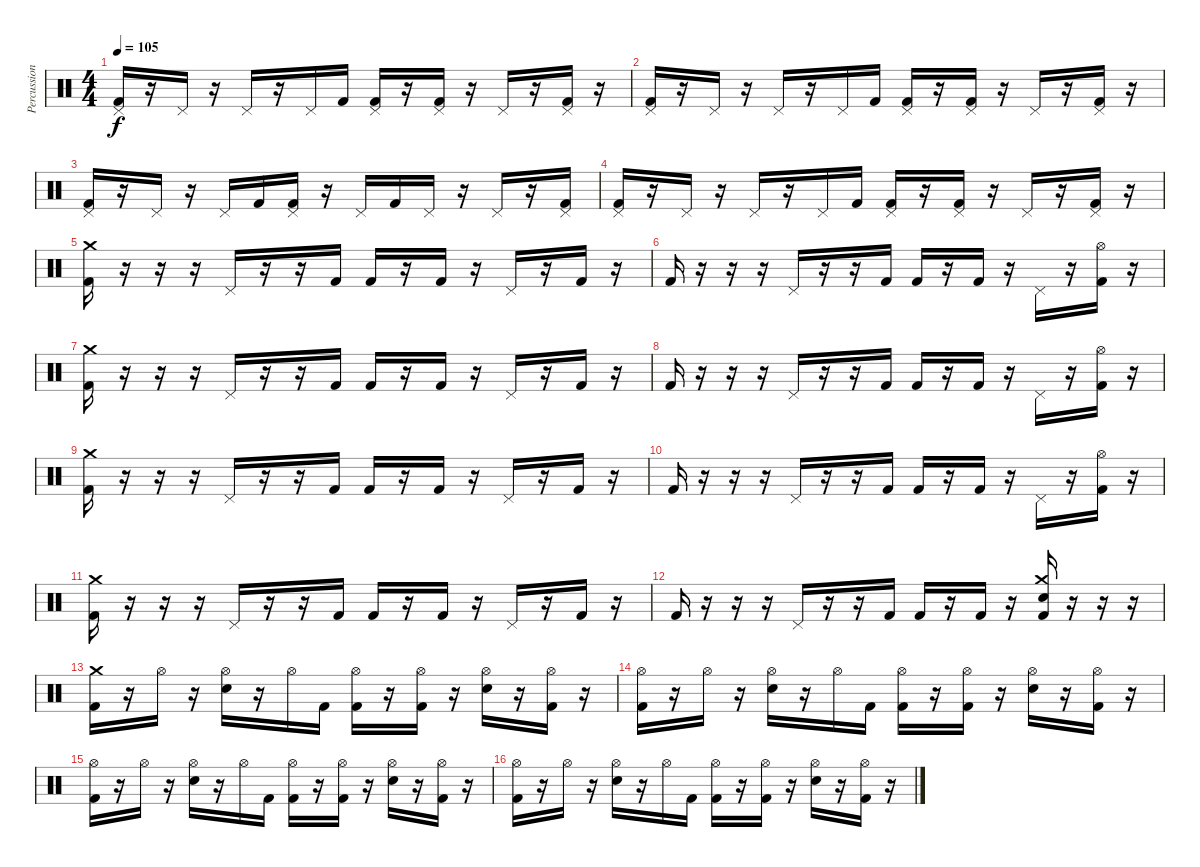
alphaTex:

\track ("Percussions" "Percussion") {instrument percussion}
\staff {score}
\articulation defaults
\ts (4 4)
\tempo 105
\clef neutral
\ks c
("Pedal Hi-Hat (hit)" "Kick (hit) 2").16{dy f volume 9} r.16 "Pedal Hi-Hat (hit)".16 r.16 "Pedal Hi-Hat (hit)".16 r.16 "Pedal Hi-Hat (hit)".16 "Kick (hit) 2".16 ("Pedal Hi-Hat (hit)" "Kick (hit) 2").16 r.16 ("Pedal Hi-Hat (hit)" "Kick (hit) 2").16 r.16 "Pedal Hi-Hat (hit)".16 r.16 ("Pedal Hi-Hat (hit)" "Kick (hit) 2").16 r.16 |
("Pedal Hi-Hat (hit)" "Kick (hit) 2").16 r.16 "Pedal Hi-Hat (hit)".16 r.16 "Pedal Hi-Hat (hit)".16 r.16 "Pedal Hi-Hat (hit)".16 "Kick (hit) 2".16 ("Pedal Hi-Hat (hit)" "Kick (hit) 2").16 r.16 ("Pedal Hi-Hat (hit)" "Kick (hit) 2").16 r.16 "Pedal Hi-Hat (hit)".16 r.16 ("Pedal Hi-Hat (hit)" "Kick (hit) 2").16 r.16 |
("Pedal Hi-Hat (hit)" "Kick (hit) 2").16 r.16 "Pedal Hi-Hat (hit)".16 r.16 "Pedal Hi-Hat (hit)".16 "Kick (hit) 2".16 ("Pedal Hi-Hat (hit)" "Kick (hit) 2").16 r.16 "Pedal Hi-Hat (hit)".16 "Kick (hit) 2".16 "Pedal Hi-Hat (hit)".16 r.16 "Pedal Hi-Hat (hit)".16 r.16 ("Pedal Hi-Hat (hit)" "Kick (hit) 2").16 |
("Pedal Hi-Hat (hit)" "Kick (hit) 2").16 r.16 "Pedal Hi-Hat (hit)".16 r.16 "Pedal Hi-Hat (hit)".16 r.16 "Pedal Hi-Hat (hit)".16 "Kick (hit) 2".16 ("Pedal Hi-Hat (hit)" "Kick (hit) 2").16 r.16 ("Pedal Hi-Hat (hit)" "Kick (hit) 2").16 r.16 "Pedal Hi-Hat (hit)".16 r.16 ("Pedal Hi-Hat (hit)" "Kick (hit) 2").16 r.16 |
("Crash medium (hit)" "Kick (hit) 2").16 r.16 r.16 r.16 "Pedal Hi-Hat (hit)".16 r.16 r.16 "Kick (hit) 2".16 "Kick (hit) 2".16 r.16 "Kick (hit) 2".16 r.16 "Pedal Hi-Hat (hit)".16 r.16 "Kick (hit) 2".16 r.16 |
"Kick (hit) 2".16 r.16 r.16 r.16 "Pedal Hi-Hat (hit)".16 r.16 r.16 "Kick (hit) 2".16 "Kick (hit) 2".16 r.16 "Kick (hit) 2".16 r.16 "Pedal Hi-Hat (hit)".16 r.16 ("Hi-Hat (open)" "Kick (hit) 2").16 r.16 |
("Crash medium (hit)" "Kick (hit) 2").16 r.16 r.16 r.16 "Pedal Hi-Hat (hit)".16 r.16 r.16 "Kick (hit) 2".16 "Kick (hit) 2".16 r.16 "Kick (hit) 2".16 r.16 "Pedal Hi-Hat (hit)".16 r.16 "Kick (hit) 2".16 r.16 |
"Kick (hit) 2".16 r.16 r.16 r.16 "Pedal Hi-Hat (hit)".16 r.16 r.16 "Kick (hit) 2".16 "Kick (hit) 2".16 r.16 "Kick (hit) 2".16 r.16 "Pedal Hi-Hat (hit)".16 r.16 ("Hi-Hat (open)" "Kick (hit) 2").16 r.16 |
("Crash medium (hit)" "Kick (hit) 2").16 r.16 r.16 r.16 "Pedal Hi-Hat (hit)".16 r.16 r.16 "Kick (hit) 2".16 "Kick (hit) 2".16 r.16 "Kick (hit) 2".16 r.16 "Pedal Hi-Hat (hit)".16 r.16 "Kick (hit) 2".16 r.16 |
"Kick (hit) 2".16 r.16 r.16 r.16 "Pedal Hi-Hat (hit)".16 r.16 r.16 "Kick (hit) 2".16 "Kick (hit) 2".16 r.16 "Kick (hit) 2".16 r.16 "Pedal Hi-Hat (hit)".16 r.16 ("Hi-Hat (open)" "Kick (hit) 2").16 r.16 |
("Crash medium (hit)" "Kick (hit) 2").16 r.16 r.16 r.16 "Pedal Hi-Hat (hit)".16 r.16 r.16 "Kick (hit) 2".16 "Kick (hit) 2".16 r.16 "Kick (hit) 2".16 r.16 "Pedal Hi-Hat (hit)".16 r.16 "Kick (hit) 2".16 r.16 |
"Kick (hit) 2".16 r.16 r.16 r.16 "Pedal Hi-Hat (hit)".16 r.16 r.16 "Kick (hit) 2".16 "Kick (hit) 2".16 r.16 "Kick (hit) 2".16 r.16 ("Crash medium (hit)" "Snare (hit) 2" "Kick (hit) 2").16 r.16 r.16 r.16 |
("Crash medium (hit)" "Kick (hit) 2").16{volume 16} r.16 "Hi-Hat (open)".16 r.16 ("Hi-Hat (open)" "Snare (hit) 2").16 r.16 "Hi-Hat (open)".16 "Kick (hit) 2".16 ("Hi-Hat (open)" "Kick (hit) 2").16 r.16 ("Hi-Hat (open)" "Kick (hit) 2").16 r.16 ("Hi-Hat (open)" "Snare (hit) 2").16 r.16 ("Hi-Hat (open)" "Kick (hit) 2").16 r.16 |
("Hi-Hat (open)" "Kick (hit) 2").16 r.16 "Hi-Hat (open)".16 r.16 ("Hi-Hat (open)" "Snare (hit) 2").16 r.16 "Hi-Hat (open)".16 "Kick (hit) 2".16 ("Hi-Hat (open)" "Kick (hit) 2").16 r.16 ("Hi-Hat (open)" "Kick (hit) 2").16 r.16 ("Hi-Hat (open)" "Snare (hit) 2").16 r.16 ("Hi-Hat (open)" "Kick (hit) 2").16 r.16 |
("Hi-Hat (open)" "Kick (hit) 2").16 r.16 "Hi-Hat (open)".16 r.16 ("Hi-Hat (open)" "Snare (hit) 2").16 r.16 "Hi-Hat (open)".16 "Kick (hit) 2".16 ("Hi-Hat (open)" "Kick (hit) 2").16 r.16 ("Hi-Hat (open)" "Kick (hit) 2").16 r.16 ("Hi-Hat (open)" "Snare (hit) 2").16 r.16 ("Hi-Hat (open)" "Kick (hit) 2").16 r.16 |
("Hi-Hat (open)" "Kick (hit) 2").16 r.16 "Hi-Hat (open)".16 r.16 ("Hi-Hat (open)" "Snare (hit) 2").16 r.16 "Hi-Hat (open)".16 "Kick (hit) 2".16 ("Hi-Hat (open)" "Kick (hit) 2").16 r.16 ("Hi-Hat (open)" "Kick (hit) 2").16 r.16 ("Hi-Hat (open)" "Snare (hit) 2").16 r.16 ("Hi-Hat (open)" "Kick (hit) 2").16 r.16
